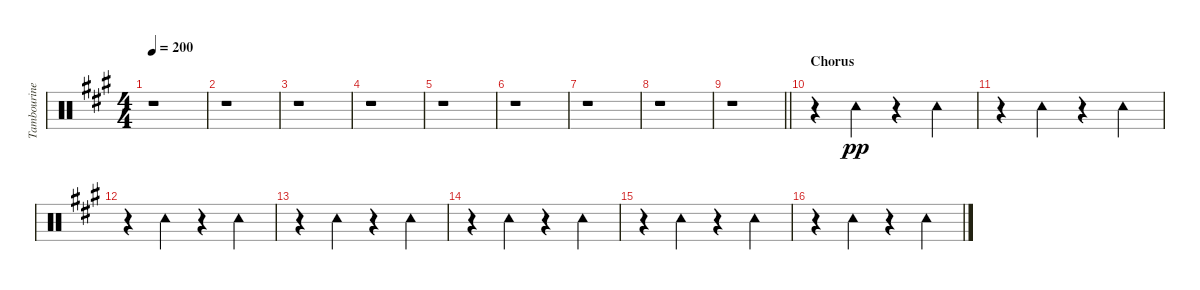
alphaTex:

\track ("Tambourine" "Tambourine") {instrument percussion}
\staff {score}
\articulation defaults
\ts (4 4)
\tempo 200
\clef neutral
\ks a
r.1{dy pp} |
r.1 |
r.1 |
r.1 |
r.1 |
r.1 |
r.1 |
r.1 |
\barLineRight lightlight
r.1 |
\section ("" "Chorus")
r.4 "Tambourine (hit)".4 r.4 "Tambourine (hit)".4 |
r.4 "Tambourine (hit)".4 r.4 "Tambourine (hit)".4 |
r.4 "Tambourine (hit)".4 r.4 "Tambourine (hit)".4 |
r.4 "Tambourine (hit)".4 r.4 "Tambourine (hit)".4 |
r.4 "Tambourine (hit)".4 r.4 "Tambourine (hit)".4 |
r.4 "Tambourine (hit)".4 r.4 "Tambourine (hit)".4 |
r.4 "Tambourine (hit)".4 r.4 "Tambourine (hit)".4
